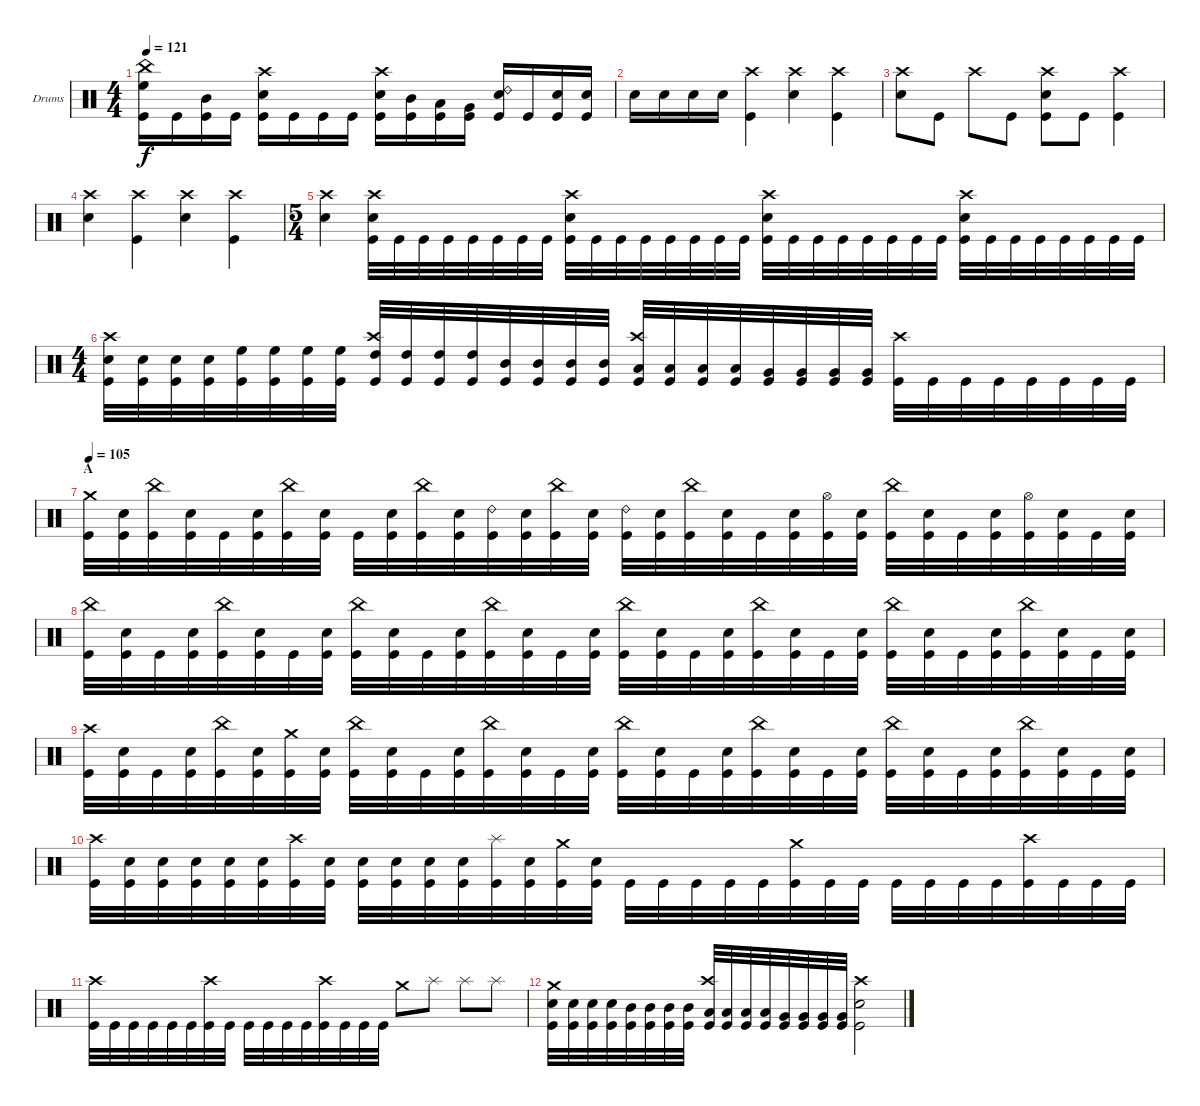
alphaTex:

\bracketExtendMode groupsimilarinstruments
\firstSystemTrackNameOrientation horizontal
\otherSystemsTrackNameOrientation horizontal
\track ("Drumkit" "Drums") {instrument percussion}
\staff {score}
\articulation defaults
\ts (4 4)
\tempo 121
\clef neutral
\ks c
("Kick (hit)" "High Floor Tom (hit)" "China (hit)").16{dy f} "Kick (hit)".16 ("Kick (hit)" "Mid Tom (hit)").16 "Kick (hit)".16 ("Kick (hit)" "Snare (hit) 2" "Crash high (hit)").16 "Kick (hit)".16 "Kick (hit)".16 "Kick (hit)".16 ("Kick (hit)" "Snare (hit) 2" "Crash high (hit)").16 ("Kick (hit)" "Mid Tom (hit)").16 ("Kick (hit)" "Low Tom (hit)").16 ("Kick (hit)" "Very Low Tom (hit)").16 ("Kick (hit)" "Snare (hit) 2" "Ride (bell) 2").16 "Kick (hit)".16 ("Kick (hit)" "Snare (hit) 2").16 ("Kick (hit)" "Snare (hit) 2").16 |
"Snare (hit) 2".16 "Snare (hit) 2".16 "Snare (hit) 2".16 "Snare (hit) 2".16 ("Kick (hit)" "Crash high (hit)").4 ("Snare (hit) 2" "Crash high (hit)").4 ("Kick (hit)" "Crash high (hit)").4 |
("Snare (hit) 2" "Crash high (hit)").8 "Kick (hit)".8 "Crash high (hit)".8 "Kick (hit)".8 ("Snare (hit) 2" "Crash high (hit)" "Kick (hit)").8 "Kick (hit)".8 ("Kick (hit)" "Crash high (hit)").4 |
("Snare (hit) 2" "Crash high (hit)").4 ("Crash high (hit)" "Kick (hit)").4 ("Snare (hit) 2" "Crash high (hit)").4 ("Kick (hit)" "Crash high (hit)").4 |
\ts (5 4)
("Snare (hit) 2" "Crash high (hit)").4 ("Kick (hit)" "Snare (hit) 2" "Crash high (hit)").32 "Kick (hit)".32 "Kick (hit)".32 "Kick (hit)".32 "Kick (hit)".32 "Kick (hit)".32 "Kick (hit)".32 "Kick (hit)".32 ("Kick (hit)" "Snare (hit) 2" "Crash high (hit)").32 "Kick (hit)".32 "Kick (hit)".32 "Kick (hit)".32 "Kick (hit)".32 "Kick (hit)".32 "Kick (hit)".32 "Kick (hit)".32 ("Kick (hit)" "Snare (hit) 2" "Crash high (hit)").32 "Kick (hit)".32 "Kick (hit)".32 "Kick (hit)".32 "Kick (hit)".32 "Kick (hit)".32 "Kick (hit)".32 "Kick (hit)".32 ("Kick (hit)" "Snare (hit) 2" "Crash high (hit)").32 "Kick (hit)".32 "Kick (hit)".32 "Kick (hit)".32 "Kick (hit)".32 "Kick (hit)".32 "Kick (hit)".32 "Kick (hit)".32 |
\ts (4 4)
("Kick (hit)" "Snare (hit) 2" "Crash high (hit)").32 ("Kick (hit)" "Snare (hit) 2").32 ("Kick (hit)" "Snare (hit) 2").32 ("Kick (hit)" "Snare (hit) 2").32 ("Kick (hit)" "High Floor Tom (hit)").32 ("Kick (hit)" "High Floor Tom (hit)").32 ("Kick (hit)" "High Floor Tom (hit)").32 ("Kick (hit)" "High Floor Tom (hit)").32 ("Kick (hit)" "Crash high (hit)" "High Tom (hit)").32 ("Kick (hit)" "High Tom (hit)").32 ("Kick (hit)" "High Tom (hit)").32 ("Kick (hit)" "High Tom (hit)").32 ("Kick (hit)" "Mid Tom (hit)").32 ("Kick (hit)" "Mid Tom (hit)").32 ("Kick (hit)" "Mid Tom (hit)").32 ("Kick (hit)" "Mid Tom (hit)").32 ("Kick (hit)" "Crash high (hit)" "Low Tom (hit)").32 ("Kick (hit)" "Low Tom (hit)").32 ("Kick (hit)" "Low Tom (hit)").32 ("Kick (hit)" "Low Tom (hit)").32 ("Kick (hit)" "Very Low Tom (hit)").32 ("Kick (hit)" "Very Low Tom (hit)").32 ("Kick (hit)" "Very Low Tom (hit)").32 ("Kick (hit)" "Very Low Tom (hit)").32 ("Kick (hit)" "Crash high (hit)").32 "Kick (hit)".32 "Kick (hit)".32 "Kick (hit)".32 "Kick (hit)".32 "Kick (hit)".32 "Kick (hit)".32 "Kick (hit)".32 |
\section ("" "A")
\tempo 105
("Kick (hit)" "Crash medium (hit)").32 ("Kick (hit)" "Snare (hit) 2").32 ("Kick (hit)" "China (hit)").32 ("Kick (hit)" "Snare (hit) 2").32 "Kick (hit)".32 ("Kick (hit)" "Snare (hit) 2").32 ("Kick (hit)" "China (hit)").32 ("Kick (hit)" "Snare (hit) 2").32 "Kick (hit)".32 ("Kick (hit)" "Snare (hit) 2").32 ("Kick (hit)" "China (hit)").32 ("Kick (hit)" "Snare (hit) 2").32 ("Kick (hit)" "Ride (bell) 2").32 ("Kick (hit)" "Snare (hit) 2").32 ("Kick (hit)" "China (hit)").32 ("Kick (hit)" "Snare (hit) 2").32 ("Kick (hit)" "Ride (bell) 2").32 ("Kick (hit)" "Snare (hit) 2").32 ("Kick (hit)" "China (hit)").32 ("Kick (hit)" "Snare (hit) 2").32 "Kick (hit)".32 ("Kick (hit)" "Snare (hit) 2").32 ("Kick (hit)" "Hi-Hat (open)").32 ("Kick (hit)" "Snare (hit) 2").32 ("Kick (hit)" "China (hit)").32 ("Kick (hit)" "Snare (hit) 2").32 "Kick (hit)".32 ("Kick (hit)" "Snare (hit) 2").32 ("Kick (hit)" "Hi-Hat (open)").32 ("Kick (hit)" "Snare (hit) 2").32 "Kick (hit)".32 ("Kick (hit)" "Snare (hit) 2").32 |
("Kick (hit)" "China (hit)").32 ("Kick (hit)" "Snare (hit) 2").32 "Kick (hit)".32 ("Kick (hit)" "Snare (hit) 2").32 ("Kick (hit)" "China (hit)").32 ("Kick (hit)" "Snare (hit) 2").32 "Kick (hit)".32 ("Kick (hit)" "Snare (hit) 2").32 ("Kick (hit)" "China (hit)").32 ("Kick (hit)" "Snare (hit) 2").32 "Kick (hit)".32 ("Kick (hit)" "Snare (hit) 2").32 ("Kick (hit)" "China (hit)").32 ("Kick (hit)" "Snare (hit) 2").32 "Kick (hit)".32 ("Kick (hit)" "Snare (hit) 2").32 ("Kick (hit)" "China (hit)").32 ("Kick (hit)" "Snare (hit) 2").32 "Kick (hit)".32 ("Kick (hit)" "Snare (hit) 2").32 ("Kick (hit)" "China (hit)").32 ("Kick (hit)" "Snare (hit) 2").32 "Kick (hit)".32 ("Kick (hit)" "Snare (hit) 2").32 ("Kick (hit)" "China (hit)").32 ("Kick (hit)" "Snare (hit) 2").32 "Kick (hit)".32 ("Kick (hit)" "Snare (hit) 2").32 ("Kick (hit)" "China (hit)").32 ("Kick (hit)" "Snare (hit) 2").32 "Kick (hit)".32 ("Kick (hit)" "Snare (hit) 2").32 |
("Kick (hit)" "Crash high (hit)").32 ("Kick (hit)" "Snare (hit) 2").32 "Kick (hit)".32 ("Kick (hit)" "Snare (hit) 2").32 ("Kick (hit)" "China (hit)").32 ("Kick (hit)" "Snare (hit) 2").32 ("Kick (hit)" "Crash medium (hit)").32 ("Kick (hit)" "Snare (hit) 2").32 ("Kick (hit)" "China (hit)").32 ("Kick (hit)" "Snare (hit) 2").32 "Kick (hit)".32 ("Kick (hit)" "Snare (hit) 2").32 ("Kick (hit)" "China (hit)").32 ("Kick (hit)" "Snare (hit) 2").32 "Kick (hit)".32 ("Kick (hit)" "Snare (hit) 2").32 ("Kick (hit)" "China (hit)").32 ("Kick (hit)" "Snare (hit) 2").32 "Kick (hit)".32 ("Kick (hit)" "Snare (hit) 2").32 ("Kick (hit)" "China (hit)").32 ("Kick (hit)" "Snare (hit) 2").32 "Kick (hit)".32 ("Kick (hit)" "Snare (hit) 2").32 ("Kick (hit)" "China (hit)").32 ("Kick (hit)" "Snare (hit) 2").32 "Kick (hit)".32 ("Kick (hit)" "Snare (hit) 2").32 ("Kick (hit)" "China (hit)").32 ("Kick (hit)" "Snare (hit) 2").32 "Kick (hit)".32 ("Kick (hit)" "Snare (hit) 2").32 |
("Kick (hit)" "Crash high (hit)").32 ("Kick (hit)" "Snare (hit) 2").32 ("Kick (hit)" "Snare (hit) 2").32 ("Kick (hit)" "Snare (hit) 2").32 ("Kick (hit)" "Snare (hit) 2").32 ("Kick (hit)" "Snare (hit) 2").32 ("Kick (hit)" "Crash high (hit)").32 ("Kick (hit)" "Snare (hit) 2").32 ("Kick (hit)" "Snare (hit) 2").32 ("Kick (hit)" "Snare (hit) 2").32 ("Kick (hit)" "Snare (hit) 2").32 ("Kick (hit)" "Snare (hit) 2").32 ("Kick (hit)" "Splash (hit)").32 ("Kick (hit)" "Snare (hit) 2").32 ("Kick (hit)" "Crash medium (hit)").32 ("Kick (hit)" "Snare (hit) 2").32 "Kick (hit)".32 "Kick (hit)".32 "Kick (hit)".32 "Kick (hit)".32 "Kick (hit)".32 ("Kick (hit)" "Crash medium (hit)").32 "Kick (hit)".32 "Kick (hit)".32 "Kick (hit)".32 "Kick (hit)".32 "Kick (hit)".32 "Kick (hit)".32 ("Kick (hit)" "Crash high (hit)").32 "Kick (hit)".32 "Kick (hit)".32 "Kick (hit)".32 |
("Kick (hit)" "Crash high (hit)").32 "Kick (hit)".32 "Kick (hit)".32 "Kick (hit)".32 "Kick (hit)".32 "Kick (hit)".32 ("Kick (hit)" "Crash high (hit)").32 "Kick (hit)".32 "Kick (hit)".32 "Kick (hit)".32 "Kick (hit)".32 "Kick (hit)".32 ("Kick (hit)" "Crash high (hit)").32 "Kick (hit)".32 "Kick (hit)".32 "Kick (hit)".32 "Crash medium (hit)".8 "Splash (hit)".8 "Splash (hit)".8 "Splash (hit)".8 |
("Crash medium (hit)" "Kick (hit)" "Snare (hit) 2").32 ("Kick (hit)" "Snare (hit) 2").32 ("Kick (hit)" "Snare (hit) 2").32 ("Kick (hit)" "Snare (hit) 2").32 ("Kick (hit)" "Mid Tom (hit)").32 ("Kick (hit)" "Mid Tom (hit)").32 ("Kick (hit)" "Mid Tom (hit)").32 ("Kick (hit)" "Mid Tom (hit)").32 ("Kick (hit)" "Low Tom (hit)" "Crash high (hit)").32 ("Kick (hit)" "Low Tom (hit)").32 ("Kick (hit)" "Low Tom (hit)").32 ("Kick (hit)" "Low Tom (hit)").32 ("Kick (hit)" "Very Low Tom (hit)").32 ("Kick (hit)" "Very Low Tom (hit)").32 ("Kick (hit)" "Very Low Tom (hit)").32 ("Kick (hit)" "Very Low Tom (hit)").32 ("Kick (hit)" "Crash high (hit)" "Snare (hit) 2").2
